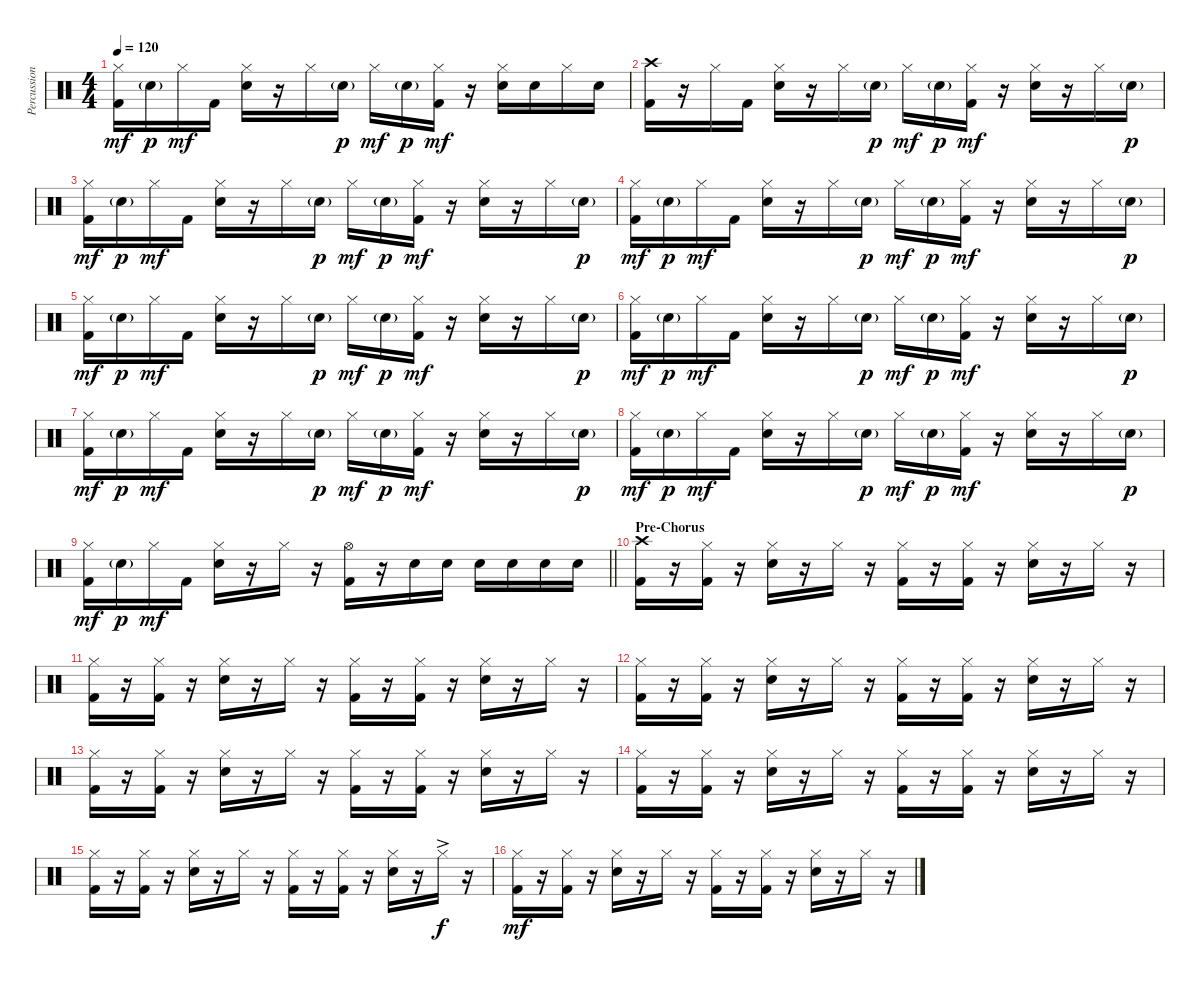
\track ("Percussion" "Percussion") {instrument percussion}
\staff {score}
\articulation defaults
\ts (4 4)
\tempo 120
\clef neutral
\ks c
("Hi-Hat (closed)" "Kick (hit) 2").16{dy mf} "Electric Snare (hit)"{g}.16{dy p} "Hi-Hat (closed)".16{dy mf} "Kick (hit) 2".16 ("Hi-Hat (closed)" "Electric Snare (hit)").16 r.16 "Hi-Hat (closed)".16 "Electric Snare (hit)"{g}.16{dy p} "Hi-Hat (closed)".16{dy mf} "Electric Snare (hit)"{g}.16{dy p} ("Hi-Hat (closed)" "Kick (hit) 2").16{dy mf} r.16 ("Hi-Hat (closed)" "Electric Snare (hit)").16 "Electric Snare (hit)".16 "Hi-Hat (closed)".16 "Electric Snare (hit)".16 |
("Crash high (hit)" "Kick (hit) 2").16 r.16 "Hi-Hat (closed)".16 "Kick (hit) 2".16 ("Hi-Hat (closed)" "Electric Snare (hit)").16 r.16 "Hi-Hat (closed)".16 "Electric Snare (hit)"{g}.16{dy p} "Hi-Hat (closed)".16{dy mf} "Electric Snare (hit)"{g}.16{dy p} ("Hi-Hat (closed)" "Kick (hit) 2").16{dy mf} r.16 ("Hi-Hat (closed)" "Electric Snare (hit)").16 r.16 "Hi-Hat (closed)".16 "Electric Snare (hit)"{g}.16{dy p} |
("Hi-Hat (closed)" "Kick (hit) 2").16{dy mf} "Electric Snare (hit)"{g}.16{dy p} "Hi-Hat (closed)".16{dy mf} "Kick (hit) 2".16 ("Hi-Hat (closed)" "Electric Snare (hit)").16 r.16 "Hi-Hat (closed)".16 "Electric Snare (hit)"{g}.16{dy p} "Hi-Hat (closed)".16{dy mf} "Electric Snare (hit)"{g}.16{dy p} ("Hi-Hat (closed)" "Kick (hit) 2").16{dy mf} r.16 ("Hi-Hat (closed)" "Electric Snare (hit)").16 r.16 "Hi-Hat (closed)".16 "Electric Snare (hit)"{g}.16{dy p} |
("Hi-Hat (closed)" "Kick (hit) 2").16{dy mf} "Electric Snare (hit)"{g}.16{dy p} "Hi-Hat (closed)".16{dy mf} "Kick (hit) 2".16 ("Hi-Hat (closed)" "Electric Snare (hit)").16 r.16 "Hi-Hat (closed)".16 "Electric Snare (hit)"{g}.16{dy p} "Hi-Hat (closed)".16{dy mf} "Electric Snare (hit)"{g}.16{dy p} ("Hi-Hat (closed)" "Kick (hit) 2").16{dy mf} r.16 ("Hi-Hat (closed)" "Electric Snare (hit)").16 r.16 "Hi-Hat (closed)".16 "Electric Snare (hit)"{g}.16{dy p} |
("Hi-Hat (closed)" "Kick (hit) 2").16{dy mf} "Electric Snare (hit)"{g}.16{dy p} "Hi-Hat (closed)".16{dy mf} "Kick (hit) 2".16 ("Hi-Hat (closed)" "Electric Snare (hit)").16 r.16 "Hi-Hat (closed)".16 "Electric Snare (hit)"{g}.16{dy p} "Hi-Hat (closed)".16{dy mf} "Electric Snare (hit)"{g}.16{dy p} ("Hi-Hat (closed)" "Kick (hit) 2").16{dy mf} r.16 ("Hi-Hat (closed)" "Electric Snare (hit)").16 r.16 "Hi-Hat (closed)".16 "Electric Snare (hit)"{g}.16{dy p} |
("Hi-Hat (closed)" "Kick (hit) 2").16{dy mf} "Electric Snare (hit)"{g}.16{dy p} "Hi-Hat (closed)".16{dy mf} "Kick (hit) 2".16 ("Hi-Hat (closed)" "Electric Snare (hit)").16 r.16 "Hi-Hat (closed)".16 "Electric Snare (hit)"{g}.16{dy p} "Hi-Hat (closed)".16{dy mf} "Electric Snare (hit)"{g}.16{dy p} ("Hi-Hat (closed)" "Kick (hit) 2").16{dy mf} r.16 ("Hi-Hat (closed)" "Electric Snare (hit)").16 r.16 "Hi-Hat (closed)".16 "Electric Snare (hit)"{g}.16{dy p} |
("Hi-Hat (closed)" "Kick (hit) 2").16{dy mf} "Electric Snare (hit)"{g}.16{dy p} "Hi-Hat (closed)".16{dy mf} "Kick (hit) 2".16 ("Hi-Hat (closed)" "Electric Snare (hit)").16 r.16 "Hi-Hat (closed)".16 "Electric Snare (hit)"{g}.16{dy p} "Hi-Hat (closed)".16{dy mf} "Electric Snare (hit)"{g}.16{dy p} ("Hi-Hat (closed)" "Kick (hit) 2").16{dy mf} r.16 ("Hi-Hat (closed)" "Electric Snare (hit)").16 r.16 "Hi-Hat (closed)".16 "Electric Snare (hit)"{g}.16{dy p} |
("Hi-Hat (closed)" "Kick (hit) 2").16{dy mf} "Electric Snare (hit)"{g}.16{dy p} "Hi-Hat (closed)".16{dy mf} "Kick (hit) 2".16 ("Hi-Hat (closed)" "Electric Snare (hit)").16 r.16 "Hi-Hat (closed)".16 "Electric Snare (hit)"{g}.16{dy p} "Hi-Hat (closed)".16{dy mf} "Electric Snare (hit)"{g}.16{dy p} ("Hi-Hat (closed)" "Kick (hit) 2").16{dy mf} r.16 ("Hi-Hat (closed)" "Electric Snare (hit)").16 r.16 "Hi-Hat (closed)".16 "Electric Snare (hit)"{g}.16{dy p} |
\barLineRight lightlight
("Hi-Hat (closed)" "Kick (hit) 2").16{dy mf} "Electric Snare (hit)"{g}.16{dy p} "Hi-Hat (closed)".16{dy mf} "Kick (hit) 2".16 ("Hi-Hat (closed)" "Electric Snare (hit)").16 r.16 "Hi-Hat (closed)".16 r.16 ("Hi-Hat (open)" "Kick (hit) 2").16 r.16 "Electric Snare (hit)".16 "Electric Snare (hit)".16 "Electric Snare (hit)".16 "Electric Snare (hit)".16 "Electric Snare (hit)".16 "Electric Snare (hit)".16 |
\section ("" "Pre-Chorus")
("Crash high (hit)" "Kick (hit) 2").16 r.16 ("Hi-Hat (closed)" "Kick (hit) 2").16 r.16 ("Hi-Hat (closed)" "Electric Snare (hit)").16 r.16 "Hi-Hat (closed)".16 r.16 ("Hi-Hat (closed)" "Kick (hit) 2").16 r.16 ("Hi-Hat (closed)" "Kick (hit) 2").16 r.16 ("Hi-Hat (closed)" "Electric Snare (hit)").16 r.16 "Hi-Hat (closed)".16 r.16 |
("Hi-Hat (closed)" "Kick (hit) 2").16 r.16 ("Hi-Hat (closed)" "Kick (hit) 2").16 r.16 ("Hi-Hat (closed)" "Electric Snare (hit)").16 r.16 "Hi-Hat (closed)".16 r.16 ("Hi-Hat (closed)" "Kick (hit) 2").16 r.16 ("Hi-Hat (closed)" "Kick (hit) 2").16 r.16 ("Hi-Hat (closed)" "Electric Snare (hit)").16 r.16 "Hi-Hat (closed)".16 r.16 |
("Hi-Hat (closed)" "Kick (hit) 2").16 r.16 ("Hi-Hat (closed)" "Kick (hit) 2").16 r.16 ("Hi-Hat (closed)" "Electric Snare (hit)").16 r.16 "Hi-Hat (closed)".16 r.16 ("Hi-Hat (closed)" "Kick (hit) 2").16 r.16 ("Hi-Hat (closed)" "Kick (hit) 2").16 r.16 ("Hi-Hat (closed)" "Electric Snare (hit)").16 r.16 "Hi-Hat (closed)".16 r.16 |
("Hi-Hat (closed)" "Kick (hit) 2").16 r.16 ("Hi-Hat (closed)" "Kick (hit) 2").16 r.16 ("Hi-Hat (closed)" "Electric Snare (hit)").16 r.16 "Hi-Hat (closed)".16 r.16 ("Hi-Hat (closed)" "Kick (hit) 2").16 r.16 ("Hi-Hat (closed)" "Kick (hit) 2").16 r.16 ("Hi-Hat (closed)" "Electric Snare (hit)").16 r.16 "Hi-Hat (closed)".16 r.16 |
("Hi-Hat (closed)" "Kick (hit) 2").16 r.16 ("Hi-Hat (closed)" "Kick (hit) 2").16 r.16 ("Hi-Hat (closed)" "Electric Snare (hit)").16 r.16 "Hi-Hat (closed)".16 r.16 ("Hi-Hat (closed)" "Kick (hit) 2").16 r.16 ("Hi-Hat (closed)" "Kick (hit) 2").16 r.16 ("Hi-Hat (closed)" "Electric Snare (hit)").16 r.16 "Hi-Hat (closed)".16 r.16 |
("Hi-Hat (closed)" "Kick (hit) 2").16 r.16 ("Hi-Hat (closed)" "Kick (hit) 2").16 r.16 ("Hi-Hat (closed)" "Electric Snare (hit)").16 r.16 "Hi-Hat (closed)".16 r.16 ("Hi-Hat (closed)" "Kick (hit) 2").16 r.16 ("Hi-Hat (closed)" "Kick (hit) 2").16 r.16 ("Hi-Hat (closed)" "Electric Snare (hit)").16 r.16 "Hi-Hat (closed)"{ac}.16{dy f} r.16 |
("Hi-Hat (closed)" "Kick (hit) 2").16{dy mf} r.16 ("Hi-Hat (closed)" "Kick (hit) 2").16 r.16 ("Hi-Hat (closed)" "Electric Snare (hit)").16 r.16 "Hi-Hat (closed)".16 r.16 ("Hi-Hat (closed)" "Kick (hit) 2").16 r.16 ("Hi-Hat (closed)" "Kick (hit) 2").16 r.16 ("Hi-Hat (closed)" "Electric Snare (hit)").16 r.16 "Hi-Hat (closed)".16 r.16
